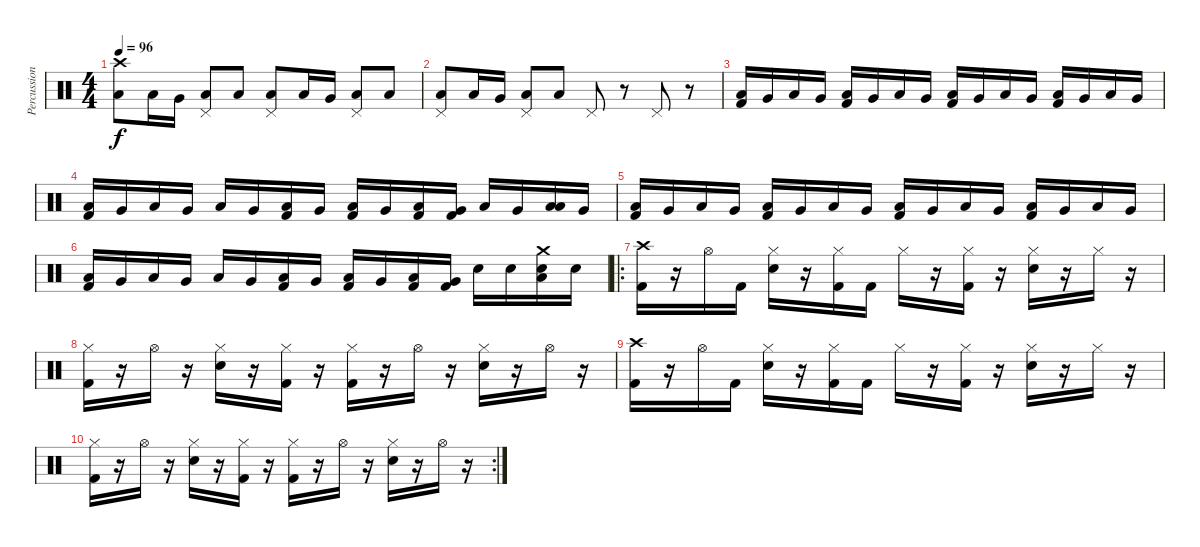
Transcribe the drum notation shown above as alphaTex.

\track ("Percussion" "Percussion") {instrument percussion}
\staff {score}
\articulation defaults
\ts (4 4)
\tempo 96
\clef neutral
\ks c
("Crash high (hit)" "Low Floor Tom (hit)").8{dy f} "Low Tom (hit)".16 "Very Low Tom (hit)".16 ("Pedal Hi-Hat (hit)" "Low Floor Tom (hit)").8 "Low Tom (hit)".8 ("Pedal Hi-Hat (hit)" "Low Floor Tom (hit)").8 "Low Tom (hit)".16 "Very Low Tom (hit)".16 ("Pedal Hi-Hat (hit)" "Low Floor Tom (hit)").8 "Low Tom (hit)".8 |
("Pedal Hi-Hat (hit)" "Low Floor Tom (hit)").8 "Low Tom (hit)".16 "Very Low Tom (hit)".16 ("Pedal Hi-Hat (hit)" "Low Floor Tom (hit)").8 "Low Tom (hit)".8 "Pedal Hi-Hat (hit)".8 r.8 "Pedal Hi-Hat (hit)".8 r.8 |
("Low Tom (hit)" "Kick (hit) 2").16 "Very Low Tom (hit)".16 "Low Tom (hit)".16 "Very Low Tom (hit)".16 ("Low Tom (hit)" "Kick (hit) 2").16 "Very Low Tom (hit)".16 "Low Tom (hit)".16 "Very Low Tom (hit)".16 ("Low Tom (hit)" "Kick (hit) 2").16 "Very Low Tom (hit)".16 "Low Tom (hit)".16 "Very Low Tom (hit)".16 ("Low Tom (hit)" "Kick (hit) 2").16 "Very Low Tom (hit)".16 "Low Tom (hit)".16 "Very Low Tom (hit)".16 |
("Low Tom (hit)" "Kick (hit) 2").16 "Very Low Tom (hit)".16 "Low Tom (hit)".16 "Very Low Tom (hit)".16 "Low Tom (hit)".16 "Very Low Tom (hit)".16 ("Low Tom (hit)" "Kick (hit) 2").16 "Very Low Tom (hit)".16 ("Low Tom (hit)" "Kick (hit) 2").16 "Very Low Tom (hit)".16 ("Low Tom (hit)" "Kick (hit) 2").16 ("Very Low Tom (hit)" "Kick (hit) 2").16 "Low Tom (hit)".16 "Very Low Tom (hit)".16 ("Low Tom (hit)" "Low Floor Tom (hit)").16 "Very Low Tom (hit)".16 |
("Low Tom (hit)" "Kick (hit) 2").16 "Very Low Tom (hit)".16 "Low Tom (hit)".16 "Very Low Tom (hit)".16 ("Low Tom (hit)" "Kick (hit) 2").16 "Very Low Tom (hit)".16 "Low Tom (hit)".16 "Very Low Tom (hit)".16 ("Low Tom (hit)" "Kick (hit) 2").16 "Very Low Tom (hit)".16 "Low Tom (hit)".16 "Very Low Tom (hit)".16 ("Low Tom (hit)" "Kick (hit) 2").16 "Very Low Tom (hit)".16 "Low Tom (hit)".16 "Very Low Tom (hit)".16 |
("Low Tom (hit)" "Kick (hit) 2").16 "Very Low Tom (hit)".16 "Low Tom (hit)".16 "Very Low Tom (hit)".16 "Low Tom (hit)".16 "Very Low Tom (hit)".16 ("Low Tom (hit)" "Kick (hit) 2").16 "Very Low Tom (hit)".16 ("Low Tom (hit)" "Kick (hit) 2").16 "Very Low Tom (hit)".16 ("Low Tom (hit)" "Kick (hit) 2").16 ("Very Low Tom (hit)" "Kick (hit) 2").16 "Snare (hit) 2".16 "Snare (hit) 2".16 ("Crash medium (hit)" "Snare (hit) 2" "Low Floor Tom (hit)").16 "Snare (hit) 2".16 |
\ro
("Crash high (hit)" "Kick (hit) 2").16 r.16 "Hi-Hat (open)".16 "Kick (hit) 2".16 ("Hi-Hat (closed)" "Snare (hit) 2").16 r.16 ("Hi-Hat (closed)" "Kick (hit) 2").16 "Kick (hit) 2".16 "Hi-Hat (closed)".16 r.16 ("Hi-Hat (closed)" "Kick (hit) 2").16 r.16 ("Hi-Hat (closed)" "Snare (hit) 2").16 r.16 "Hi-Hat (closed)".16 r.16 |
("Hi-Hat (closed)" "Kick (hit) 2").16 r.16 "Hi-Hat (open)".16 r.16 ("Hi-Hat (closed)" "Snare (hit) 2").16 r.16 ("Hi-Hat (closed)" "Kick (hit) 2").16 r.16 ("Hi-Hat (closed)" "Kick (hit) 2").16 r.16 "Hi-Hat (open)".16 r.16 ("Hi-Hat (closed)" "Snare (hit) 2").16 r.16 "Hi-Hat (open)".16 r.16 |
("Crash high (hit)" "Kick (hit) 2").16 r.16 "Hi-Hat (open)".16 "Kick (hit) 2".16 ("Hi-Hat (closed)" "Snare (hit) 2").16 r.16 ("Hi-Hat (closed)" "Kick (hit) 2").16 "Kick (hit) 2".16 "Hi-Hat (closed)".16 r.16 ("Hi-Hat (closed)" "Kick (hit) 2").16 r.16 ("Hi-Hat (closed)" "Snare (hit) 2").16 r.16 "Hi-Hat (closed)".16 r.16 |
\rc 2
("Hi-Hat (closed)" "Kick (hit) 2").16 r.16 "Hi-Hat (open)".16 r.16 ("Hi-Hat (closed)" "Snare (hit) 2").16 r.16 ("Hi-Hat (closed)" "Kick (hit) 2").16 r.16 ("Hi-Hat (closed)" "Kick (hit) 2").16 r.16 "Hi-Hat (open)".16 r.16 ("Hi-Hat (closed)" "Snare (hit) 2").16 r.16 "Hi-Hat (open)".16 r.16
